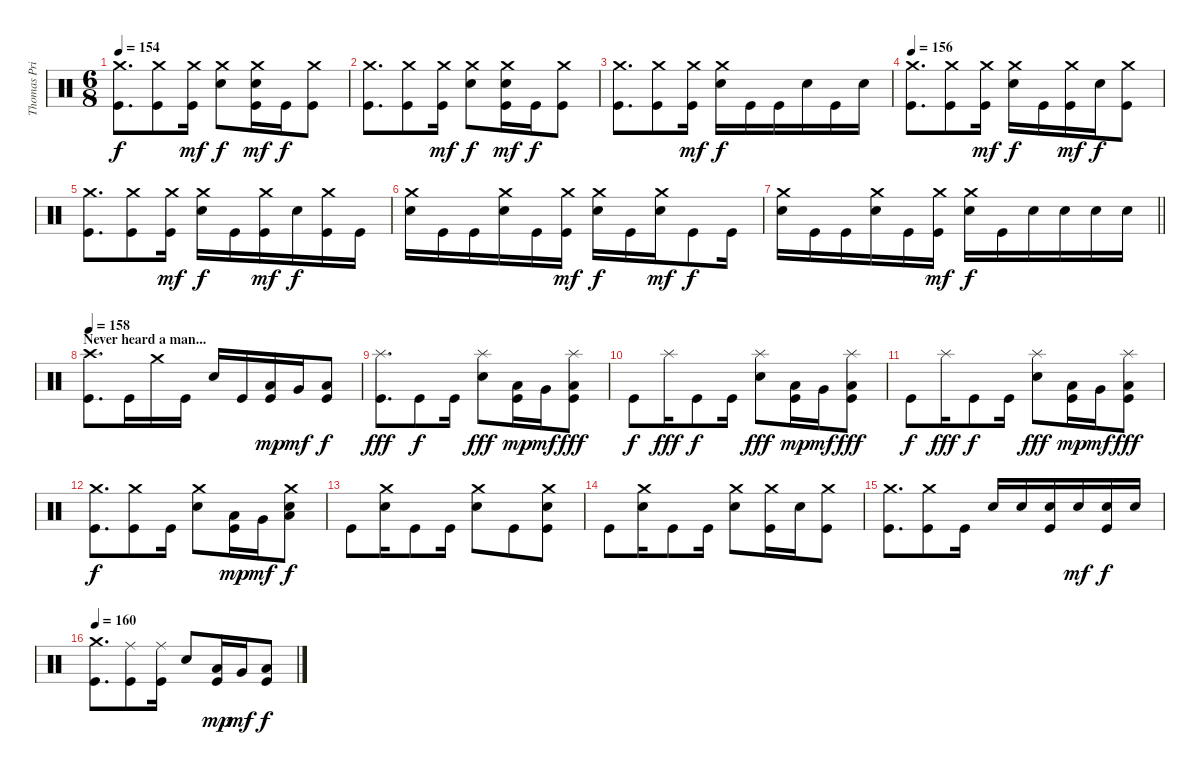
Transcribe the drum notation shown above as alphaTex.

\track ("Thomas Pridgen" "Thomas Pri") {instrument percussion}
\staff {score}
\articulation defaults
\ts (6 8)
\tempo 154
\clef neutral
\ks c
("Crash medium (hit)" "Kick (hit)").8{d dy f} ("Crash medium (hit)" "Kick (hit)").8 ("Crash medium (hit)" "Kick (hit)").16{dy mf} ("Crash medium (hit)" "Snare (hit) 2").8{dy f} ("Crash medium (hit)" "Snare (hit) 2" "Kick (hit)").16{dy mf} "Kick (hit)".16{dy f} ("Crash medium (hit)" "Kick (hit)").8 |
("Crash medium (hit)" "Kick (hit)").8{d} ("Crash medium (hit)" "Kick (hit)").8 ("Crash medium (hit)" "Kick (hit)").16{dy mf} ("Crash medium (hit)" "Snare (hit) 2").8{dy f} ("Crash medium (hit)" "Snare (hit) 2" "Kick (hit)").16{dy mf} "Kick (hit)".16{dy f} ("Crash medium (hit)" "Kick (hit)").8 |
("Crash medium (hit)" "Kick (hit)").8{d} ("Crash medium (hit)" "Kick (hit)").8 ("Crash medium (hit)" "Kick (hit)").16{dy mf} ("Crash medium (hit)" "Snare (hit) 2").16{dy f} "Kick (hit)".16 "Kick (hit)".16 "Snare (hit) 2".16 "Kick (hit)".16 "Snare (hit) 2".16 |
\tempo 156
("Crash medium (hit)" "Kick (hit)").8{d} ("Crash medium (hit)" "Kick (hit)").8 ("Crash medium (hit)" "Kick (hit)").16{dy mf} ("Crash medium (hit)" "Snare (hit) 2").16{dy f} "Kick (hit)".16 ("Crash medium (hit)" "Kick (hit)").16{dy mf} "Snare (hit) 2".16{dy f} ("Crash medium (hit)" "Kick (hit)").8 |
("Crash medium (hit)" "Kick (hit)").8{d} ("Crash medium (hit)" "Kick (hit)").8 ("Crash medium (hit)" "Kick (hit)").16{dy mf} ("Crash medium (hit)" "Snare (hit) 2").16{dy f} "Kick (hit)".16 ("Crash medium (hit)" "Kick (hit)").16{dy mf} "Snare (hit) 2".16{dy f} ("Crash medium (hit)" "Kick (hit)").16 "Kick (hit)".16 |
("Crash medium (hit)" "Snare (hit) 2").16 "Kick (hit)".16 "Kick (hit)".16 ("Crash medium (hit)" "Snare (hit) 2").16 "Kick (hit)".16 ("Crash medium (hit)" "Kick (hit)").16{dy mf} ("Crash medium (hit)" "Snare (hit) 2").16{dy f} "Kick (hit)".16 ("Crash medium (hit)" "Snare (hit) 2").16{dy mf} "Kick (hit)".8{dy f} "Kick (hit)".16 |
\barLineRight lightlight
("Crash medium (hit)" "Snare (hit) 2").16 "Kick (hit)".16 "Kick (hit)".16 ("Crash medium (hit)" "Snare (hit) 2").16 "Kick (hit)".16 ("Crash medium (hit)" "Kick (hit)").16{dy mf} ("Crash medium (hit)" "Snare (hit) 2").16{dy f} "Kick (hit)".16 "Snare (hit) 2".16 "Snare (hit) 2".16 "Snare (hit) 2".16 "Snare (hit) 2".16 |
\section ("" "Never heard a man...")
\tempo 158
("Crash high (hit)" "Kick (hit)").8{d} "Kick (hit)".16 "Crash medium (hit)".16 "Kick (hit)".16 "Snare (hit) 2".16 "Kick (hit)".16 ("Low Tom (hit)" "Kick (hit)").16{dy mp} "Very Low Tom (hit)".16{dy mf} ("Low Floor Tom (hit)" "Kick (hit)").8{dy f} |
("Splash (hit)" "Kick (hit)").8{d dy fff} "Kick (hit)".8{dy f} "Kick (hit)".16 ("Splash (hit)" "Snare (hit) 2").8{dy fff} ("Low Tom (hit)" "Kick (hit)").16{dy mp} "Very Low Tom (hit)".16{dy mf} ("Splash (hit)" "Low Floor Tom (hit)" "Kick (hit)").8{dy fff} |
"Kick (hit)".8{dy f} "Splash (hit)".16{dy fff} "Kick (hit)".8{dy f} "Kick (hit)".16 ("Splash (hit)" "Snare (hit) 2").8{dy fff} ("Low Tom (hit)" "Kick (hit)").16{dy mp} "Very Low Tom (hit)".16{dy mf} ("Splash (hit)" "Low Floor Tom (hit)" "Kick (hit)").8{dy fff} |
"Kick (hit)".8{dy f} "Splash (hit)".16{dy fff} "Kick (hit)".8{dy f} "Kick (hit)".16 ("Splash (hit)" "Snare (hit) 2").8{dy fff} ("Low Tom (hit)" "Kick (hit)").16{dy mp} "Very Low Tom (hit)".16{dy mf} ("Splash (hit)" "Low Floor Tom (hit)" "Kick (hit)").8{dy fff} |
("Crash medium (hit)" "Kick (hit)").8{d dy f} ("Crash medium (hit)" "Kick (hit)").8 "Kick (hit)".16 ("Crash medium (hit)" "Snare (hit) 2").8 ("Low Tom (hit)" "Kick (hit)").16{dy mp} "Very Low Tom (hit)".16{dy mf} ("Crash medium (hit)" "Snare (hit) 2" "Low Floor Tom (hit)").8{dy f} |
"Kick (hit)".8 ("Crash medium (hit)" "Snare (hit) 2").16 "Kick (hit)".8 "Kick (hit)".16 ("Crash medium (hit)" "Snare (hit) 2").8 "Kick (hit)".8 ("Crash medium (hit)" "Snare (hit) 2" "Kick (hit)").8 |
"Kick (hit)".8 ("Crash medium (hit)" "Snare (hit) 2").16 "Kick (hit)".8 "Kick (hit)".16 ("Crash medium (hit)" "Snare (hit) 2").8 ("Crash medium (hit)" "Kick (hit)").16 "Snare (hit) 2".16 ("Crash medium (hit)" "Kick (hit)").8 |
("Crash medium (hit)" "Kick (hit)").8{d} ("Crash medium (hit)" "Kick (hit)").8 "Kick (hit)".16 "Snare (hit) 2".16 "Snare (hit) 2".16 ("Snare (hit) 2" "Kick (hit)").16 "Snare (hit) 2".16{dy mf} ("Snare (hit) 2" "Kick (hit)").16{dy f} "Snare (hit) 2".16 |
\tempo 160
("Crash medium (hit)" "Kick (hit)").8{d} ("Ride (middle)" "Kick (hit)").8 ("Ride (middle)" "Kick (hit)").16 "Snare (hit) 2".8 ("Low Tom (hit)" "Kick (hit)").16{dy mp} "Very Low Tom (hit)".16{dy mf} ("Low Floor Tom (hit)" "Kick (hit)").8{dy f}
